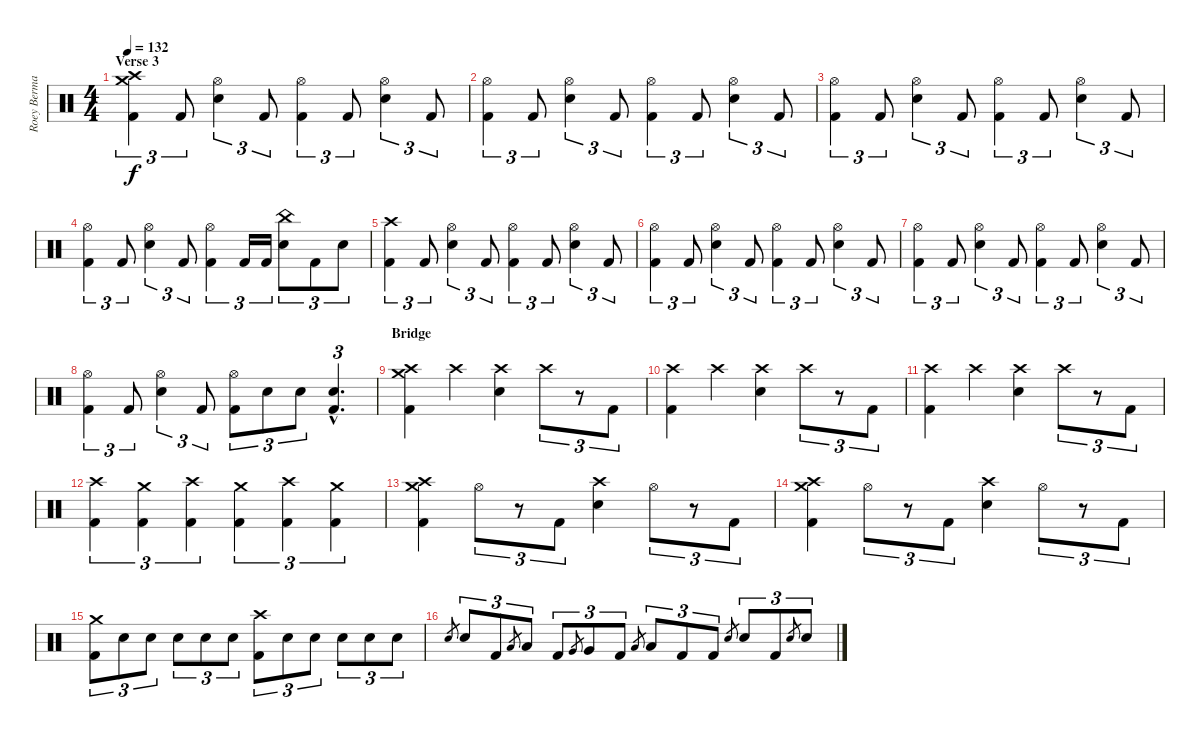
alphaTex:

\track ("Roey Berman" "Roey Berma") {instrument percussion}
\staff {score}
\articulation defaults
\ts (4 4)
\section ("" "Verse 3")
\tempo 132
\clef neutral
\ks c
("Crash high (hit)" "Crash medium (hit)" "Kick (hit) 2").4{tu (3 2) dy f} "Kick (hit) 2".8{tu (3 2)} ("Hi-Hat (open)" "Electric Snare (hit)").4{tu (3 2)} "Kick (hit) 2".8{tu (3 2)} ("Hi-Hat (open)" "Kick (hit) 2").4{tu (3 2)} "Kick (hit) 2".8{tu (3 2)} ("Hi-Hat (open)" "Electric Snare (hit)").4{tu (3 2)} "Kick (hit) 2".8{tu (3 2)} |
("Hi-Hat (open)" "Kick (hit) 2").4{tu (3 2)} "Kick (hit) 2".8{tu (3 2)} ("Hi-Hat (open)" "Electric Snare (hit)").4{tu (3 2)} "Kick (hit) 2".8{tu (3 2)} ("Hi-Hat (open)" "Kick (hit) 2").4{tu (3 2)} "Kick (hit) 2".8{tu (3 2)} ("Hi-Hat (open)" "Electric Snare (hit)").4{tu (3 2)} "Kick (hit) 2".8{tu (3 2)} |
("Hi-Hat (open)" "Kick (hit) 2").4{tu (3 2)} "Kick (hit) 2".8{tu (3 2)} ("Hi-Hat (open)" "Electric Snare (hit)").4{tu (3 2)} "Kick (hit) 2".8{tu (3 2)} ("Hi-Hat (open)" "Kick (hit) 2").4{tu (3 2)} "Kick (hit) 2".8{tu (3 2)} ("Hi-Hat (open)" "Electric Snare (hit)").4{tu (3 2)} "Kick (hit) 2".8{tu (3 2)} |
("Hi-Hat (open)" "Kick (hit) 2").4{tu (3 2)} "Kick (hit) 2".8{tu (3 2)} ("Hi-Hat (open)" "Electric Snare (hit)").4{tu (3 2)} "Kick (hit) 2".8{tu (3 2)} ("Hi-Hat (open)" "Kick (hit) 2").4{tu (3 2)} "Kick (hit) 2".16{tu (3 2)} "Kick (hit) 2".16{tu (3 2)} ("China (hit)" "Electric Snare (hit)").8{tu (3 2)} "Kick (hit) 2".8{tu (3 2)} "Electric Snare (hit)".8{tu (3 2)} |
("Crash high (hit)" "Kick (hit) 2").4{tu (3 2)} "Kick (hit) 2".8{tu (3 2)} ("Hi-Hat (open)" "Electric Snare (hit)").4{tu (3 2)} "Kick (hit) 2".8{tu (3 2)} ("Hi-Hat (open)" "Kick (hit) 2").4{tu (3 2)} "Kick (hit) 2".8{tu (3 2)} ("Hi-Hat (open)" "Electric Snare (hit)").4{tu (3 2)} "Kick (hit) 2".8{tu (3 2)} |
("Hi-Hat (open)" "Kick (hit) 2").4{tu (3 2)} "Kick (hit) 2".8{tu (3 2)} ("Hi-Hat (open)" "Electric Snare (hit)").4{tu (3 2)} "Kick (hit) 2".8{tu (3 2)} ("Hi-Hat (open)" "Kick (hit) 2").4{tu (3 2)} "Kick (hit) 2".8{tu (3 2)} ("Hi-Hat (open)" "Electric Snare (hit)").4{tu (3 2)} "Kick (hit) 2".8{tu (3 2)} |
("Hi-Hat (open)" "Kick (hit) 2").4{tu (3 2)} "Kick (hit) 2".8{tu (3 2)} ("Hi-Hat (open)" "Electric Snare (hit)").4{tu (3 2)} "Kick (hit) 2".8{tu (3 2)} ("Hi-Hat (open)" "Kick (hit) 2").4{tu (3 2)} "Kick (hit) 2".8{tu (3 2)} ("Hi-Hat (open)" "Electric Snare (hit)").4{tu (3 2)} "Kick (hit) 2".8{tu (3 2)} |
("Hi-Hat (open)" "Kick (hit) 2").4{tu (3 2)} "Kick (hit) 2".8{tu (3 2)} ("Hi-Hat (open)" "Electric Snare (hit)").4{tu (3 2)} "Kick (hit) 2".8{tu (3 2)} ("Hi-Hat (open)" "Kick (hit) 2").8{tu (3 2)} "Electric Snare (hit)".8{tu (3 2)} "Electric Snare (hit)".8{tu (3 2)} ("Electric Snare (hit)"{hac} "Kick (hit) 2"{hac}).4{d tu (3 2)} |
\section ("" "Bridge")
("Crash medium (hit)" "Crash high (hit)" "Kick (hit) 2").4 "Crash high (hit)".4 ("Crash high (hit)" "Electric Snare (hit)").4 "Crash high (hit)".8{tu (3 2)} r.8{tu (3 2)} "Kick (hit) 2".8{tu (3 2)} |
("Crash high (hit)" "Kick (hit) 2").4 "Crash high (hit)".4 ("Crash high (hit)" "Electric Snare (hit)").4 "Crash high (hit)".8{tu (3 2)} r.8{tu (3 2)} "Kick (hit) 2".8{tu (3 2)} |
("Crash high (hit)" "Kick (hit) 2").4 "Crash high (hit)".4 ("Crash high (hit)" "Electric Snare (hit)").4 "Crash high (hit)".8{tu (3 2)} r.8{tu (3 2)} "Kick (hit) 2".8{tu (3 2)} |
("Crash high (hit)" "Kick (hit) 2").4{tu (3 2)} ("Crash medium (hit)" "Kick (hit) 2").4{tu (3 2)} ("Crash high (hit)" "Kick (hit) 2").4{tu (3 2)} ("Crash medium (hit)" "Kick (hit) 2").4{tu (3 2)} ("Crash high (hit)" "Kick (hit) 2").4{tu (3 2)} ("Crash medium (hit)" "Kick (hit) 2").4{tu (3 2)} |
("Crash medium (hit)" "Crash high (hit)" "Kick (hit) 2").4 "Hi-Hat (open)".8{tu (3 2)} r.8{tu (3 2)} "Kick (hit) 2".8{tu (3 2)} ("Crash high (hit)" "Electric Snare (hit)").4 "Hi-Hat (open)".8{tu (3 2)} r.8{tu (3 2)} "Kick (hit) 2".8{tu (3 2)} |
("Crash medium (hit)" "Crash high (hit)" "Kick (hit) 2").4 "Hi-Hat (open)".8{tu (3 2)} r.8{tu (3 2)} "Kick (hit) 2".8{tu (3 2)} ("Crash high (hit)" "Electric Snare (hit)").4 "Hi-Hat (open)".8{tu (3 2)} r.8{tu (3 2)} "Kick (hit) 2".8{tu (3 2)} |
("Crash medium (hit)" "Kick (hit) 2").8{tu (3 2)} "Electric Snare (hit)".8{tu (3 2)} "Electric Snare (hit)".8{tu (3 2)} "Electric Snare (hit)".8{tu (3 2)} "Electric Snare (hit)".8{tu (3 2)} "Electric Snare (hit)".8{tu (3 2)} ("Crash high (hit)" "Kick (hit) 2").8{tu (3 2)} "Electric Snare (hit)".8{tu (3 2)} "Electric Snare (hit)".8{tu (3 2)} "Electric Snare (hit)".8{tu (3 2)} "Electric Snare (hit)".8{tu (3 2)} "Electric Snare (hit)".8{tu (3 2)} |
"Electric Snare (hit)".8{gr} "Electric Snare (hit)".8{tu (3 2)} "Kick (hit) 2".8{tu (3 2)} "Low Tom (hit)".8{gr} "Low Tom (hit)".8{tu (3 2)} "Kick (hit) 2".8{tu (3 2)} "Very Low Tom (hit)".8{gr} "Very Low Tom (hit)".8{tu (3 2)} "Kick (hit) 2".8{tu (3 2)} "Low Floor Tom (hit)".8{gr} "Low Floor Tom (hit)".8{tu (3 2)} "Kick (hit) 2".8{tu (3 2)} "Kick (hit) 2".8{tu (3 2)} "Electric Snare (hit)".8{gr} "Electric Snare (hit)".8{tu (3 2)} "Kick (hit) 2".8{tu (3 2)} "Electric Snare (hit)".8{gr} "Electric Snare (hit)".8{tu (3 2)}
